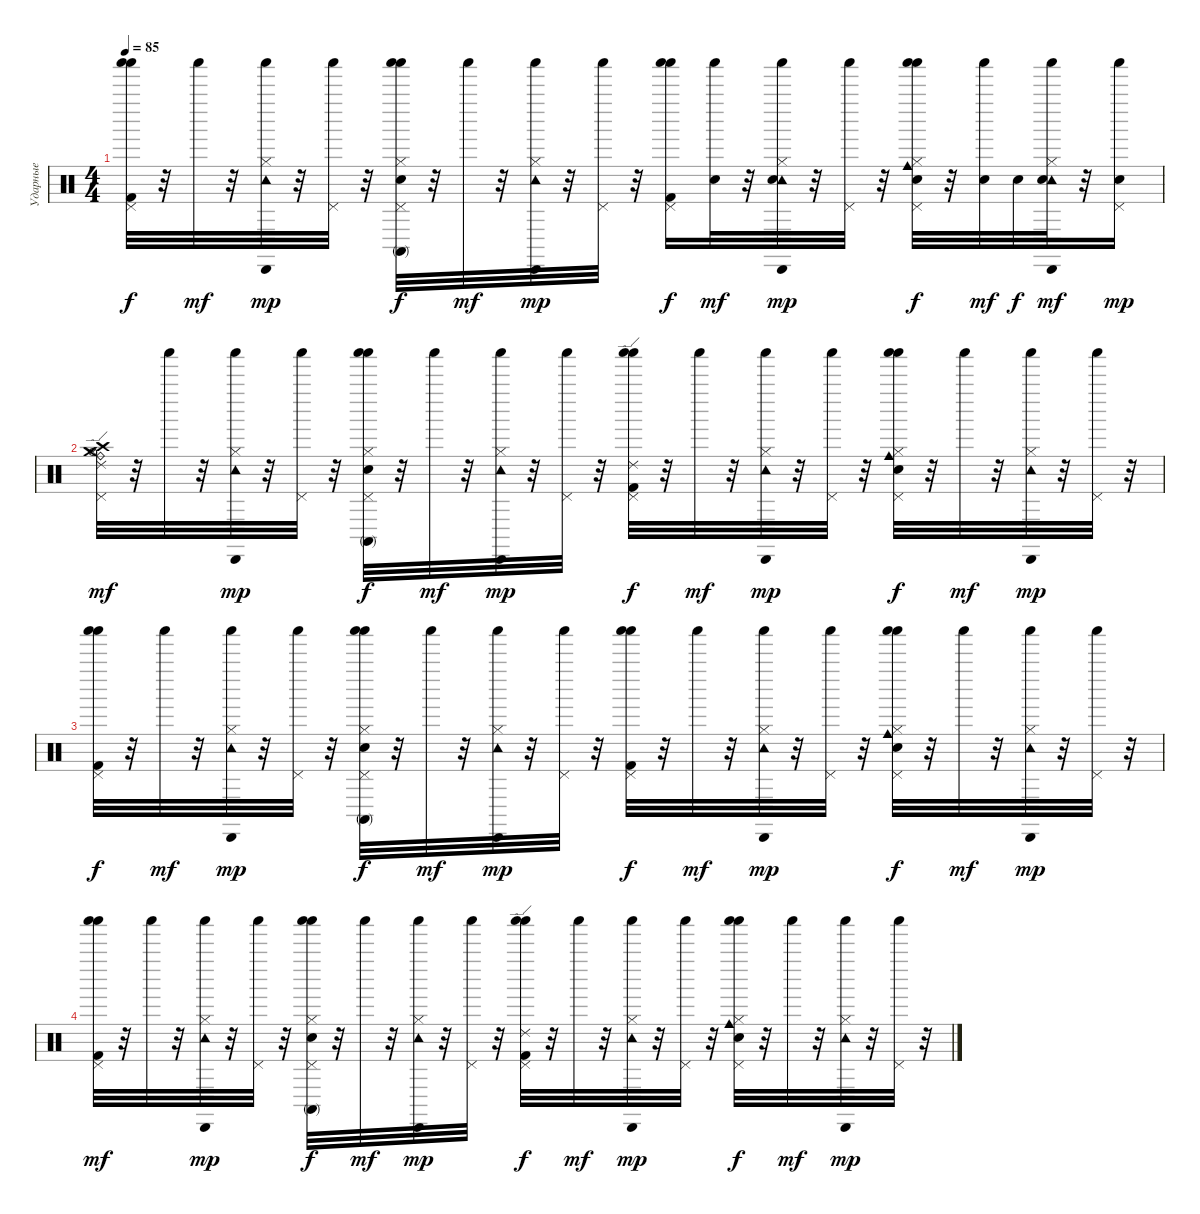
\track ("Ударные" "Ударные") {instrument percussion}
\staff {score}
\articulation defaults
\ts (4 4)
\tempo 85
\clef neutral
\ks c
("Pedal Hi-Hat (hit)" "Shaker (hit)" "Shaker (hit)" "Kick (hit) 2").32{dy f volume 4} r.32 "Shaker (hit)".32{dy mf volume 4} r.32 ("Hi-Hat (closed)" "Cabasa (hit)" "Shaker (hit)" "Tambourine (hit)").32{dy mp volume 4} r.32 ("Pedal Hi-Hat (hit)" "Shaker (hit)").32{volume 4} r.32 ("Hi-Hat (closed)" "Conga high (mute)" "Pedal Hi-Hat (hit)" "Shaker (hit)" "Shaker (hit)" "Snare (hit) 2").32{dy f volume 4} r.32 "Shaker (hit)".32{dy mf volume 4} r.32 ("Hi-Hat (closed)" "Cabasa (hit)" "Shaker (hit)" "Tambourine (hit)").32{dy mp volume 4} r.32 ("Pedal Hi-Hat (hit)" "Shaker (hit)").32{volume 4} r.32 ("Pedal Hi-Hat (hit)" "Shaker (hit)" "Shaker (hit)" "Kick (hit) 2").16{dy f volume 4} ("Shaker (hit)" "Snare (hit) 2").32{dy mf volume 4} r.32 ("Hi-Hat (closed)" "Cabasa (hit)" "Shaker (hit)" "Tambourine (hit)" "Snare (hit) 2").32{dy mp volume 4} r.32 ("Pedal Hi-Hat (hit)" "Shaker (hit)").32{volume 4} r.32 ("Cowbell medium (hit)" "Hi-Hat (closed)" "Pedal Hi-Hat (hit)" "Shaker (hit)" "Shaker (hit)" "Snare (hit) 2").32{dy f volume 4} r.32 ("Shaker (hit)" "Snare (hit) 2").32{dy mf volume 3} "Snare (hit) 2".32{dy f volume 3} ("Hi-Hat (closed)" "Cabasa (hit)" "Shaker (hit)" "Tambourine (hit)" "Snare (hit) 2").32{dy mf volume 3} r.32 ("Pedal Hi-Hat (hit)" "Shaker (hit)" "Snare (hit) 2").16{dy mp volume 3} |
("Ride (bell)" "Hi-Hat (open)" "Crash high (hit)" "Ride (edge) 2" "Crash medium (hit)" "Pedal Hi-Hat (hit)").32{dy mf volume 3} r.32 "Shaker (hit)".32{volume 3} r.32 ("Hi-Hat (closed)" "Cabasa (hit)" "Shaker (hit)" "Tambourine (hit)").32{dy mp volume 3} r.32 ("Pedal Hi-Hat (hit)" "Shaker (hit)").32{volume 3} r.32 ("Hi-Hat (closed)" "Conga high (mute)" "Pedal Hi-Hat (hit)" "Shaker (hit)" "Shaker (hit)" "Snare (hit) 2").32{dy f volume 3} r.32 "Shaker (hit)".32{dy mf volume 3} r.32 ("Hi-Hat (closed)" "Cabasa (hit)" "Shaker (hit)" "Tambourine (hit)").32{dy mp volume 3} r.32 ("Pedal Hi-Hat (hit)" "Shaker (hit)").32{volume 3} r.32 ("Ride (edge) 2" "Pedal Hi-Hat (hit)" "Shaker (hit)" "Shaker (hit)" "Kick (hit) 2").32{dy f volume 3} r.32 "Shaker (hit)".32{dy mf volume 3} r.32 ("Hi-Hat (closed)" "Cabasa (hit)" "Shaker (hit)" "Tambourine (hit)").32{dy mp volume 3} r.32 ("Pedal Hi-Hat (hit)" "Shaker (hit)").32{volume 2} r.32 ("Cowbell medium (hit)" "Hi-Hat (closed)" "Pedal Hi-Hat (hit)" "Shaker (hit)" "Shaker (hit)" "Snare (hit) 2").32{dy f volume 2} r.32 "Shaker (hit)".32{dy mf volume 2} r.32 ("Hi-Hat (closed)" "Cabasa (hit)" "Shaker (hit)" "Tambourine (hit)").32{dy mp volume 2} r.32 ("Pedal Hi-Hat (hit)" "Shaker (hit)").32{volume 2} r.32 |
("Pedal Hi-Hat (hit)" "Shaker (hit)" "Shaker (hit)" "Kick (hit) 2").32{dy f volume 2} r.32 "Shaker (hit)".32{dy mf volume 2} r.32 ("Hi-Hat (closed)" "Cabasa (hit)" "Shaker (hit)" "Tambourine (hit)").32{dy mp volume 2} r.32 ("Pedal Hi-Hat (hit)" "Shaker (hit)").32{volume 2} r.32 ("Hi-Hat (closed)" "Conga high (mute)" "Pedal Hi-Hat (hit)" "Shaker (hit)" "Shaker (hit)" "Snare (hit) 2").32{dy f volume 2} r.32 "Shaker (hit)".32{dy mf volume 2} r.32 ("Hi-Hat (closed)" "Cabasa (hit)" "Shaker (hit)" "Tambourine (hit)").32{dy mp volume 2} r.32 ("Pedal Hi-Hat (hit)" "Shaker (hit)").32{volume 2} r.32 ("Pedal Hi-Hat (hit)" "Shaker (hit)" "Shaker (hit)" "Kick (hit) 2").32{dy f volume 2} r.32 "Shaker (hit)".32{dy mf volume 2} r.32 ("Hi-Hat (closed)" "Cabasa (hit)" "Shaker (hit)" "Tambourine (hit)").32{dy mp volume 2} r.32 ("Pedal Hi-Hat (hit)" "Shaker (hit)").32{volume 2} r.32 ("Cowbell medium (hit)" "Hi-Hat (closed)" "Pedal Hi-Hat (hit)" "Shaker (hit)" "Shaker (hit)" "Snare (hit) 2").32{dy f volume 2} r.32 "Shaker (hit)".32{dy mf volume 2} r.32 ("Hi-Hat (closed)" "Cabasa (hit)" "Shaker (hit)" "Tambourine (hit)").32{dy mp volume 2} r.32 ("Pedal Hi-Hat (hit)" "Shaker (hit)").32{volume 2} r.32 |
("Pedal Hi-Hat (hit)" "Shaker (hit)" "Shaker (hit)" "Kick (hit) 2").32{dy mf volume 1} r.32 "Shaker (hit)".32{volume 1} r.32 ("Hi-Hat (closed)" "Cabasa (hit)" "Shaker (hit)" "Tambourine (hit)").32{dy mp volume 1} r.32 ("Pedal Hi-Hat (hit)" "Shaker (hit)").32{volume 1} r.32 ("Hi-Hat (closed)" "Conga high (mute)" "Pedal Hi-Hat (hit)" "Shaker (hit)" "Shaker (hit)" "Snare (hit) 2").32{dy f volume 1} r.32 "Shaker (hit)".32{dy mf volume 1} r.32 ("Hi-Hat (closed)" "Cabasa (hit)" "Shaker (hit)" "Tambourine (hit)").32{dy mp volume 1} r.32 ("Pedal Hi-Hat (hit)" "Shaker (hit)").32{volume 1} r.32 ("Ride (edge) 2" "Pedal Hi-Hat (hit)" "Shaker (hit)" "Shaker (hit)" "Kick (hit) 2").32{dy f volume 1} r.32 "Shaker (hit)".32{dy mf volume 1} r.32 ("Hi-Hat (closed)" "Cabasa (hit)" "Shaker (hit)" "Tambourine (hit)").32{dy mp volume 1} r.32 ("Pedal Hi-Hat (hit)" "Shaker (hit)").32{volume 1} r.32 ("Cowbell medium (hit)" "Hi-Hat (closed)" "Pedal Hi-Hat (hit)" "Shaker (hit)" "Shaker (hit)" "Snare (hit) 2").32{dy f volume 1} r.32 "Shaker (hit)".32{dy mf volume 1} r.32 ("Hi-Hat (closed)" "Cabasa (hit)" "Shaker (hit)" "Tambourine (hit)").32{dy mp volume 1} r.32 ("Pedal Hi-Hat (hit)" "Shaker (hit)").32{volume 1} r.32
